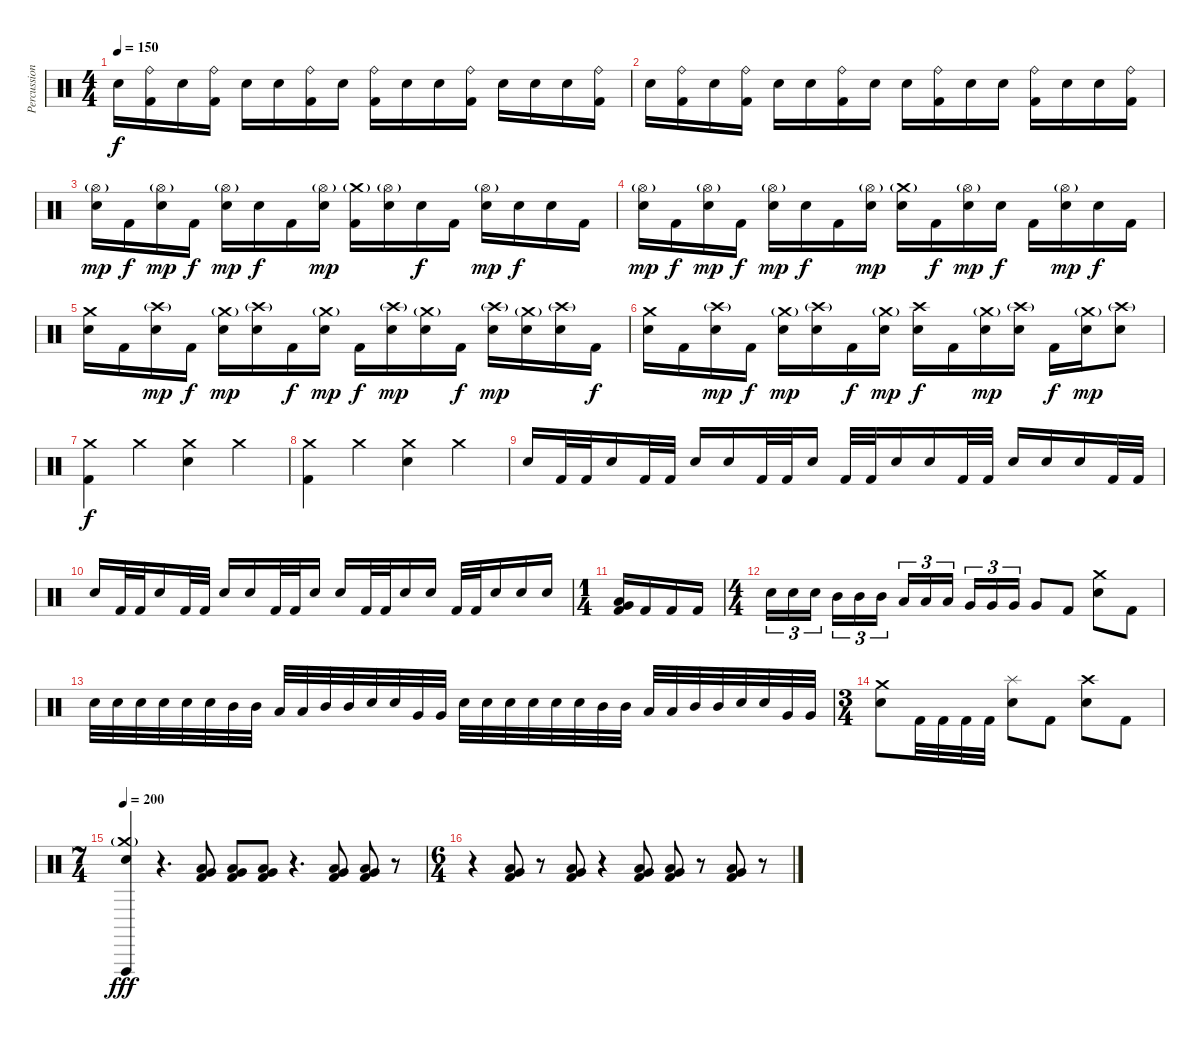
\track ("Percussion" "Percussion") {instrument percussion}
\staff {score}
\articulation defaults
\ts (4 4)
\tempo 150
\clef neutral
\ks c "Electric Snare (hit)".16{dy f}
("Ride (bell)" "Kick (hit) 2").16 "Electric Snare (hit)".16 ("Ride (bell)" "Kick (hit) 2").16 "Electric Snare (hit)".16 "Electric Snare (hit)".16 ("Ride (bell)" "Kick (hit) 2").16 "Electric Snare (hit)".16 ("Ride (bell)" "Kick (hit) 2").16 "Electric Snare (hit)".16 "Electric Snare (hit)".16 ("Ride (bell)" "Kick (hit) 2").16 "Electric Snare (hit)".16 "Electric Snare (hit)".16 "Electric Snare (hit)".16 ("Ride (bell)" "Kick (hit) 2").16 |
"Electric Snare (hit)".16 ("Ride (bell)" "Kick (hit) 2").16 "Electric Snare (hit)".16 ("Ride (bell)" "Kick (hit) 2").16 "Electric Snare (hit)".16 "Electric Snare (hit)".16 ("Ride (bell)" "Kick (hit) 2").16 "Electric Snare (hit)".16 "Electric Snare (hit)".16 ("Ride (bell)" "Kick (hit) 2").16 "Electric Snare (hit)".16 "Electric Snare (hit)".16 ("Ride (bell)" "Kick (hit) 2").16 "Electric Snare (hit)".16 "Electric Snare (hit)".16 ("Ride (bell)" "Kick (hit) 2").16 |
("Hi-Hat (open)"{g} "Electric Snare (hit)").16{dy mp} "Kick (hit) 2".16{dy f} ("Hi-Hat (open)"{g} "Electric Snare (hit)").16{dy mp} "Kick (hit) 2".16{dy f} ("Hi-Hat (open)"{g} "Electric Snare (hit)").16{dy mp} "Electric Snare (hit)".16{dy f} "Kick (hit) 2".16 ("Hi-Hat (open)"{g} "Electric Snare (hit)").16{dy mp} ("Crash medium (hit)"{g} "Kick (hit) 2").16 ("Hi-Hat (open)"{g} "Electric Snare (hit)").16 "Electric Snare (hit)".16{dy f} "Kick (hit) 2".16 ("Hi-Hat (open)"{g} "Electric Snare (hit)").16{dy mp} "Electric Snare (hit)".16{dy f} "Electric Snare (hit)".16 "Kick (hit) 2".16 |
("Hi-Hat (open)"{g} "Electric Snare (hit)").16{dy mp} "Kick (hit) 2".16{dy f} ("Hi-Hat (open)"{g} "Electric Snare (hit)").16{dy mp} "Kick (hit) 2".16{dy f} ("Hi-Hat (open)"{g} "Electric Snare (hit)").16{dy mp} "Electric Snare (hit)".16{dy f} "Kick (hit) 2".16 ("Hi-Hat (open)"{g} "Electric Snare (hit)").16{dy mp} ("Crash medium (hit)"{g} "Electric Snare (hit)").16 "Kick (hit) 2".16{dy f} ("Hi-Hat (open)"{g} "Electric Snare (hit)").16{dy mp} "Electric Snare (hit)".16{dy f} "Kick (hit) 2".16 ("Hi-Hat (open)"{g} "Electric Snare (hit)").16{dy mp} "Electric Snare (hit)".16{dy f} "Kick (hit) 2".16 |
("Crash medium (hit)" "Electric Snare (hit)").16 "Kick (hit) 2".16 ("Crash high (hit)"{g} "Electric Snare (hit)").16{dy mp} "Kick (hit) 2".16{dy f} ("Crash medium (hit)"{g} "Electric Snare (hit)").16{dy mp} ("Crash high (hit)"{g} "Electric Snare (hit)").16 "Kick (hit) 2".16{dy f} ("Crash medium (hit)"{g} "Electric Snare (hit)").16{dy mp} "Kick (hit) 2".16{dy f} ("Crash high (hit)"{g} "Electric Snare (hit)").16{dy mp} ("Crash medium (hit)"{g} "Electric Snare (hit)").16 "Kick (hit) 2".16{dy f} ("Crash high (hit)"{g} "Electric Snare (hit)").16{dy mp} ("Crash medium (hit)"{g} "Electric Snare (hit)").16 ("Crash high (hit)"{g} "Electric Snare (hit)").16 "Kick (hit) 2".16{dy f} |
("Crash medium (hit)" "Electric Snare (hit)").16 "Kick (hit) 2".16 ("Crash high (hit)"{g} "Electric Snare (hit)").16{dy mp} "Kick (hit) 2".16{dy f} ("Crash medium (hit)"{g} "Electric Snare (hit)").16{dy mp} ("Crash high (hit)"{g} "Electric Snare (hit)").16 "Kick (hit) 2".16{dy f} ("Crash medium (hit)"{g} "Electric Snare (hit)").16{dy mp} ("Crash high (hit)" "Electric Snare (hit)").16{dy f} "Kick (hit) 2".16 ("Crash medium (hit)"{g} "Electric Snare (hit)").16{dy mp} ("Crash high (hit)"{g} "Electric Snare (hit)").16 "Kick (hit) 2".16{dy f} ("Crash medium (hit)"{g} "Electric Snare (hit)").16{dy mp} ("Crash high (hit)"{g} "Electric Snare (hit)").8 |
("Crash medium (hit)" "Kick (hit) 2").4{dy f} "Crash medium (hit)".4 ("Crash medium (hit)" "Electric Snare (hit)").4 "Crash medium (hit)".4 |
("Crash medium (hit)" "Kick (hit) 2").4 "Crash medium (hit)".4 ("Crash medium (hit)" "Electric Snare (hit)").4 "Crash medium (hit)".4 |
"Electric Snare (hit)".16 "Kick (hit) 2".32 "Kick (hit) 2".32 "Electric Snare (hit)".16 "Kick (hit) 2".32 "Kick (hit) 2".32 "Electric Snare (hit)".16 "Electric Snare (hit)".16 "Kick (hit) 2".32 "Kick (hit) 2".32 "Electric Snare (hit)".16 "Kick (hit) 2".32 "Kick (hit) 2".32 "Electric Snare (hit)".16 "Electric Snare (hit)".16 "Kick (hit) 2".32 "Kick (hit) 2".32 "Electric Snare (hit)".16 "Electric Snare (hit)".16 "Electric Snare (hit)".16 "Kick (hit) 2".32 "Kick (hit) 2".32 |
"Electric Snare (hit)".16 "Kick (hit) 2".32 "Kick (hit) 2".32 "Electric Snare (hit)".16 "Kick (hit) 2".32 "Kick (hit) 2".32 "Electric Snare (hit)".16 "Electric Snare (hit)".16 "Kick (hit) 2".32 "Kick (hit) 2".32 "Electric Snare (hit)".16 "Electric Snare (hit)".16 "Kick (hit) 2".32 "Kick (hit) 2".32 "Electric Snare (hit)".16 "Electric Snare (hit)".16 "Kick (hit) 2".32 "Kick (hit) 2".32 "Electric Snare (hit)".16 "Electric Snare (hit)".16 "Electric Snare (hit)".16 |
\ts (1 4)
("Low Floor Tom (hit)" "Very Low Tom (hit)" "Kick (hit) 2").16 "Kick (hit) 2".16 "Kick (hit) 2".16 "Kick (hit) 2".16 |
\ts (4 4)
"Electric Snare (hit)".16{tu (3 2)} "Electric Snare (hit)".16{tu (3 2)} "Electric Snare (hit)".16{tu (3 2) beam splitsecondary} "Mid Tom (hit)".16{tu (3 2)} "Mid Tom (hit)".16{tu (3 2)} "Mid Tom (hit)".16{tu (3 2)} "Low Tom (hit)".16{tu (3 2)} "Low Tom (hit)".16{tu (3 2)} "Low Tom (hit)".16{tu (3 2) beam splitsecondary} "Very Low Tom (hit)".16{tu (3 2)} "Very Low Tom (hit)".16{tu (3 2)} "Very Low Tom (hit)".16{tu (3 2)} "Very Low Tom (hit)".8 "Kick (hit) 2".8 ("Crash medium (hit)" "Electric Snare (hit)").8 "Kick (hit) 2".8 |
"Electric Snare (hit)".32 "Electric Snare (hit)".32 "Electric Snare (hit)".32 "Electric Snare (hit)".32 "Electric Snare (hit)".32 "Electric Snare (hit)".32 "Mid Tom (hit)".32 "Mid Tom (hit)".32 "Low Tom (hit)".32 "Low Tom (hit)".32 "Mid Tom (hit)".32 "Mid Tom (hit)".32 "Electric Snare (hit)".32 "Electric Snare (hit)".32 "Very Low Tom (hit)".32 "Very Low Tom (hit)".32 "Electric Snare (hit)".32 "Electric Snare (hit)".32 "Electric Snare (hit)".32 "Electric Snare (hit)".32 "Electric Snare (hit)".32 "Electric Snare (hit)".32 "Mid Tom (hit)".32 "Mid Tom (hit)".32 "Low Tom (hit)".32 "Low Tom (hit)".32 "Mid Tom (hit)".32 "Mid Tom (hit)".32 "Electric Snare (hit)".32 "Electric Snare (hit)".32 "Very Low Tom (hit)".32 "Very Low Tom (hit)".32 |
\ts (3 4)
("Crash medium (hit)" "Electric Snare (hit)").8 "Kick (hit) 2".32 "Kick (hit) 2".32 "Kick (hit) 2".32 "Kick (hit) 2".32 ("Splash (hit)" "Electric Snare (hit)").8 "Kick (hit) 2".8 ("Crash high (hit)" "Electric Snare (hit)").8 "Kick (hit) 2".8 |
\ts (7 4)
\tempo 200
("Crash medium (hit)"{g} "Vibraslap (hit)" "Electric Snare (hit)").4{dy fff} r.4{d} ("Very Low Tom (hit)" "Low Floor Tom (hit)" "Kick (hit) 2").8 ("Very Low Tom (hit)" "Low Floor Tom (hit)" "Kick (hit) 2").8 ("Very Low Tom (hit)" "Low Floor Tom (hit)" "Kick (hit) 2").8 r.4{d} ("Very Low Tom (hit)" "Low Floor Tom (hit)" "Kick (hit) 2").8 ("Very Low Tom (hit)" "Low Floor Tom (hit)" "Kick (hit) 2").8 r.8 |
\ts (6 4)
r.4 ("Very Low Tom (hit)" "Low Floor Tom (hit)" "Kick (hit) 2").8 r.8 ("Very Low Tom (hit)" "Low Floor Tom (hit)" "Kick (hit) 2").8 r.4 ("Very Low Tom (hit)" "Low Floor Tom (hit)" "Kick (hit) 2").8 ("Very Low Tom (hit)" "Low Floor Tom (hit)" "Kick (hit) 2").8 r.8 ("Very Low Tom (hit)" "Low Floor Tom (hit)" "Kick (hit) 2").8 r.8
